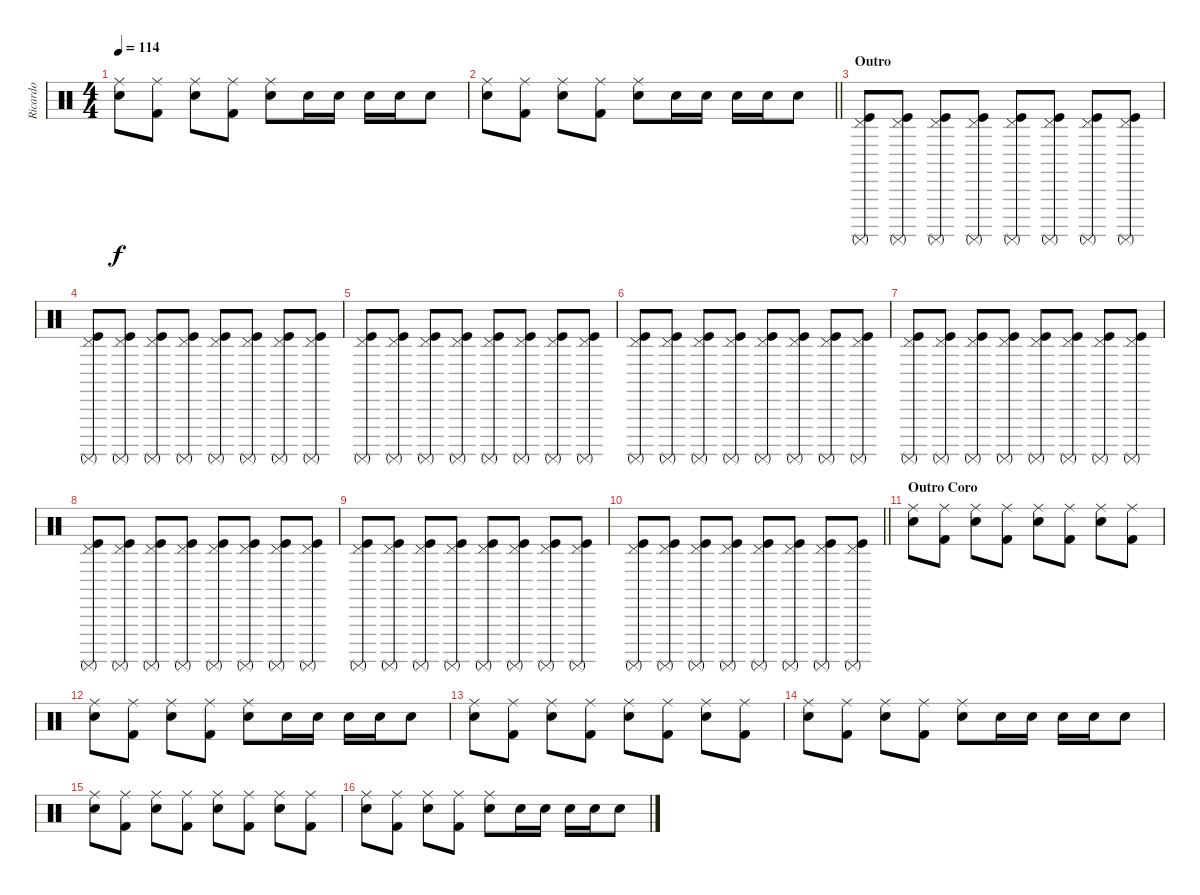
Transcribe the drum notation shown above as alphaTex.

\track ("Ricardo" "Ricardo") {instrument percussion}
\staff {score}
\articulation defaults
\ts (4 4)
\tempo 114
\clef neutral
\ks c
("Ride (middle)" "Snare (hit) 2").8{dy f} ("Ride (middle)" "Kick (hit) 2").8 ("Ride (middle)" "Snare (hit) 2").8 ("Ride (middle)" "Kick (hit) 2").8 ("Ride (middle)" "Snare (hit) 2").8 "Snare (hit) 2".16 "Snare (hit) 2".16 "Snare (hit) 2".16 "Snare (hit) 2".16 "Snare (hit) 2".8 |
\barLineRight lightlight
("Ride (middle)" "Snare (hit) 2").8 ("Ride (middle)" "Kick (hit) 2").8 ("Ride (middle)" "Snare (hit) 2").8 ("Ride (middle)" "Kick (hit) 2").8 ("Ride (middle)" "Snare (hit) 2").8 "Snare (hit) 2".16 "Snare (hit) 2".16 "Snare (hit) 2".16 "Snare (hit) 2".16 "Snare (hit) 2".8 |
\section ("" "Outro")
("Surdo (mute)" "Kick (hit)" "Pedal Hi-Hat (hit)").8 ("Surdo (mute)" "Kick (hit)" "Pedal Hi-Hat (hit)").8 ("Surdo (mute)" "Kick (hit)" "Pedal Hi-Hat (hit)").8 ("Surdo (mute)" "Kick (hit)" "Pedal Hi-Hat (hit)").8 ("Surdo (mute)" "Kick (hit)" "Pedal Hi-Hat (hit)").8 ("Surdo (mute)" "Kick (hit)" "Pedal Hi-Hat (hit)").8 ("Surdo (mute)" "Kick (hit)" "Pedal Hi-Hat (hit)").8 ("Surdo (mute)" "Kick (hit)" "Pedal Hi-Hat (hit)").8 |
("Surdo (mute)" "Kick (hit)" "Pedal Hi-Hat (hit)").8 ("Surdo (mute)" "Kick (hit)" "Pedal Hi-Hat (hit)").8 ("Surdo (mute)" "Kick (hit)" "Pedal Hi-Hat (hit)").8 ("Surdo (mute)" "Kick (hit)" "Pedal Hi-Hat (hit)").8 ("Surdo (mute)" "Kick (hit)" "Pedal Hi-Hat (hit)").8 ("Surdo (mute)" "Kick (hit)" "Pedal Hi-Hat (hit)").8 ("Surdo (mute)" "Kick (hit)" "Pedal Hi-Hat (hit)").8 ("Surdo (mute)" "Kick (hit)" "Pedal Hi-Hat (hit)").8 |
("Surdo (mute)" "Kick (hit)" "Pedal Hi-Hat (hit)").8 ("Surdo (mute)" "Kick (hit)" "Pedal Hi-Hat (hit)").8 ("Surdo (mute)" "Kick (hit)" "Pedal Hi-Hat (hit)").8 ("Surdo (mute)" "Kick (hit)" "Pedal Hi-Hat (hit)").8 ("Surdo (mute)" "Kick (hit)" "Pedal Hi-Hat (hit)").8 ("Surdo (mute)" "Kick (hit)" "Pedal Hi-Hat (hit)").8 ("Surdo (mute)" "Kick (hit)" "Pedal Hi-Hat (hit)").8 ("Surdo (mute)" "Kick (hit)" "Pedal Hi-Hat (hit)").8 |
("Surdo (mute)" "Kick (hit)" "Pedal Hi-Hat (hit)").8 ("Surdo (mute)" "Kick (hit)" "Pedal Hi-Hat (hit)").8 ("Surdo (mute)" "Kick (hit)" "Pedal Hi-Hat (hit)").8 ("Surdo (mute)" "Kick (hit)" "Pedal Hi-Hat (hit)").8 ("Surdo (mute)" "Kick (hit)" "Pedal Hi-Hat (hit)").8 ("Surdo (mute)" "Kick (hit)" "Pedal Hi-Hat (hit)").8 ("Surdo (mute)" "Kick (hit)" "Pedal Hi-Hat (hit)").8 ("Surdo (mute)" "Kick (hit)" "Pedal Hi-Hat (hit)").8 |
("Surdo (mute)" "Kick (hit)" "Pedal Hi-Hat (hit)").8 ("Surdo (mute)" "Kick (hit)" "Pedal Hi-Hat (hit)").8 ("Surdo (mute)" "Kick (hit)" "Pedal Hi-Hat (hit)").8 ("Surdo (mute)" "Kick (hit)" "Pedal Hi-Hat (hit)").8 ("Surdo (mute)" "Kick (hit)" "Pedal Hi-Hat (hit)").8 ("Surdo (mute)" "Kick (hit)" "Pedal Hi-Hat (hit)").8 ("Surdo (mute)" "Kick (hit)" "Pedal Hi-Hat (hit)").8 ("Surdo (mute)" "Kick (hit)" "Pedal Hi-Hat (hit)").8 |
("Surdo (mute)" "Kick (hit)" "Pedal Hi-Hat (hit)").8 ("Surdo (mute)" "Kick (hit)" "Pedal Hi-Hat (hit)").8 ("Surdo (mute)" "Kick (hit)" "Pedal Hi-Hat (hit)").8 ("Surdo (mute)" "Kick (hit)" "Pedal Hi-Hat (hit)").8 ("Surdo (mute)" "Kick (hit)" "Pedal Hi-Hat (hit)").8 ("Surdo (mute)" "Kick (hit)" "Pedal Hi-Hat (hit)").8 ("Surdo (mute)" "Kick (hit)" "Pedal Hi-Hat (hit)").8 ("Surdo (mute)" "Kick (hit)" "Pedal Hi-Hat (hit)").8 |
("Surdo (mute)" "Kick (hit)" "Pedal Hi-Hat (hit)").8 ("Surdo (mute)" "Kick (hit)" "Pedal Hi-Hat (hit)").8 ("Surdo (mute)" "Kick (hit)" "Pedal Hi-Hat (hit)").8 ("Surdo (mute)" "Kick (hit)" "Pedal Hi-Hat (hit)").8 ("Surdo (mute)" "Kick (hit)" "Pedal Hi-Hat (hit)").8 ("Surdo (mute)" "Kick (hit)" "Pedal Hi-Hat (hit)").8 ("Surdo (mute)" "Kick (hit)" "Pedal Hi-Hat (hit)").8 ("Surdo (mute)" "Kick (hit)" "Pedal Hi-Hat (hit)").8 |
\barLineRight lightlight
("Surdo (mute)" "Kick (hit)" "Pedal Hi-Hat (hit)").8 ("Surdo (mute)" "Kick (hit)" "Pedal Hi-Hat (hit)").8 ("Surdo (mute)" "Kick (hit)" "Pedal Hi-Hat (hit)").8 ("Surdo (mute)" "Kick (hit)" "Pedal Hi-Hat (hit)").8 ("Surdo (mute)" "Kick (hit)" "Pedal Hi-Hat (hit)").8 ("Surdo (mute)" "Kick (hit)" "Pedal Hi-Hat (hit)").8 ("Surdo (mute)" "Kick (hit)" "Pedal Hi-Hat (hit)").8 ("Surdo (mute)" "Kick (hit)" "Pedal Hi-Hat (hit)").8 |
\section ("" "Outro Coro")
("Ride (middle)" "Snare (hit) 2").8 ("Ride (middle)" "Kick (hit) 2").8 ("Ride (middle)" "Snare (hit) 2").8 ("Ride (middle)" "Kick (hit) 2").8 ("Ride (middle)" "Snare (hit) 2").8 ("Ride (middle)" "Kick (hit) 2").8 ("Ride (middle)" "Snare (hit) 2").8 ("Ride (middle)" "Kick (hit) 2").8 |
("Ride (middle)" "Snare (hit) 2").8 ("Ride (middle)" "Kick (hit) 2").8 ("Ride (middle)" "Snare (hit) 2").8 ("Ride (middle)" "Kick (hit) 2").8 ("Ride (middle)" "Snare (hit) 2").8 "Snare (hit) 2".16 "Snare (hit) 2".16 "Snare (hit) 2".16 "Snare (hit) 2".16 "Snare (hit) 2".8 |
("Ride (middle)" "Snare (hit) 2").8 ("Ride (middle)" "Kick (hit) 2").8 ("Ride (middle)" "Snare (hit) 2").8 ("Ride (middle)" "Kick (hit) 2").8 ("Ride (middle)" "Snare (hit) 2").8 ("Ride (middle)" "Kick (hit) 2").8 ("Ride (middle)" "Snare (hit) 2").8 ("Ride (middle)" "Kick (hit) 2").8 |
("Ride (middle)" "Snare (hit) 2").8 ("Ride (middle)" "Kick (hit) 2").8 ("Ride (middle)" "Snare (hit) 2").8 ("Ride (middle)" "Kick (hit) 2").8 ("Ride (middle)" "Snare (hit) 2").8 "Snare (hit) 2".16 "Snare (hit) 2".16 "Snare (hit) 2".16 "Snare (hit) 2".16 "Snare (hit) 2".8 |
("Ride (middle)" "Snare (hit) 2").8 ("Ride (middle)" "Kick (hit) 2").8 ("Ride (middle)" "Snare (hit) 2").8 ("Ride (middle)" "Kick (hit) 2").8 ("Ride (middle)" "Snare (hit) 2").8 ("Ride (middle)" "Kick (hit) 2").8 ("Ride (middle)" "Snare (hit) 2").8 ("Ride (middle)" "Kick (hit) 2").8 |
("Ride (middle)" "Snare (hit) 2").8 ("Ride (middle)" "Kick (hit) 2").8 ("Ride (middle)" "Snare (hit) 2").8 ("Ride (middle)" "Kick (hit) 2").8 ("Ride (middle)" "Snare (hit) 2").8 "Snare (hit) 2".16 "Snare (hit) 2".16 "Snare (hit) 2".16 "Snare (hit) 2".16 "Snare (hit) 2".8
